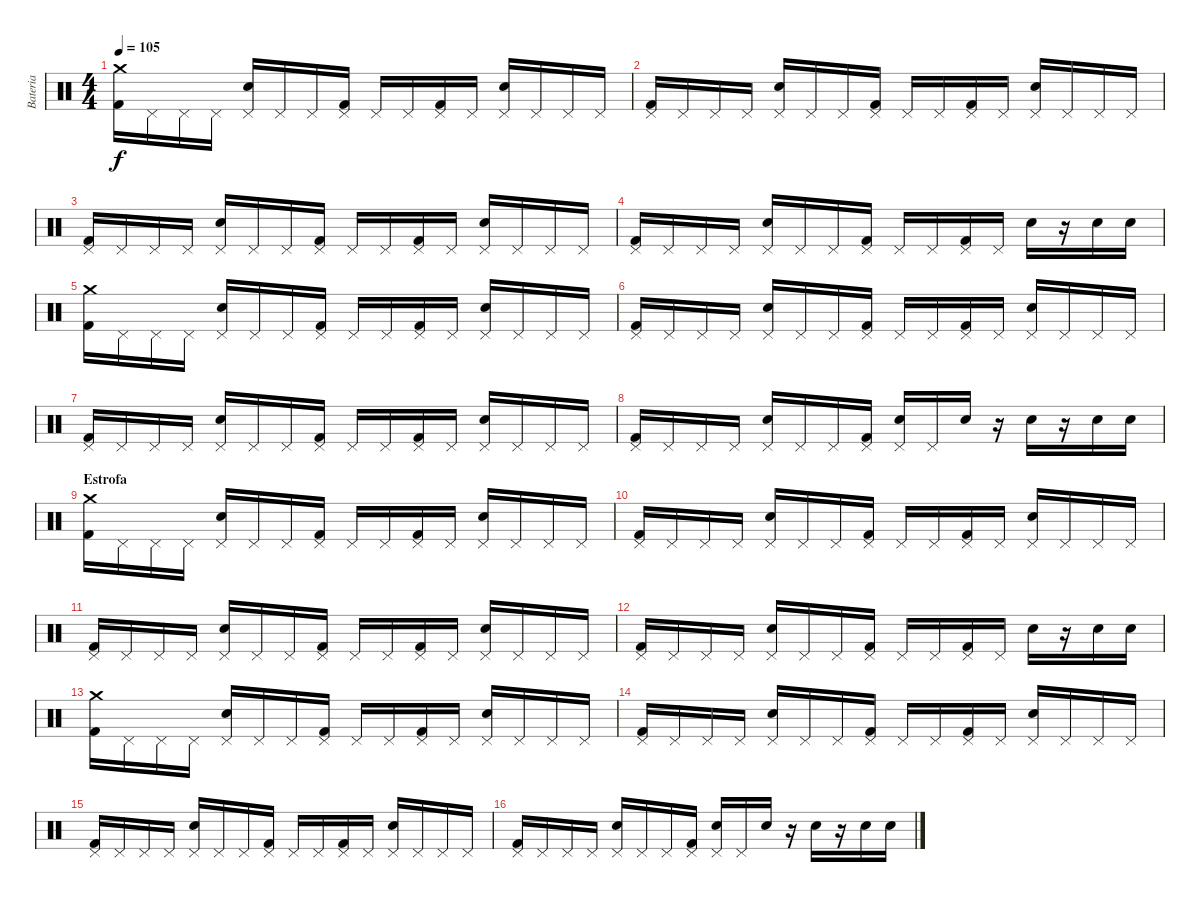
\track ("Bateria" "Bateria") {instrument percussion}
\staff {score}
\articulation defaults
\ts (4 4)
\tempo 105
\clef neutral
\ks c
("Crash medium (hit)" "Kick (hit) 2").16{dy f} "Pedal Hi-Hat (hit)".16 "Pedal Hi-Hat (hit)".16 "Pedal Hi-Hat (hit)".16 ("Pedal Hi-Hat (hit)" "Electric Snare (hit)").16 "Pedal Hi-Hat (hit)".16 "Pedal Hi-Hat (hit)".16 ("Pedal Hi-Hat (hit)" "Kick (hit) 2").16 "Pedal Hi-Hat (hit)".16 "Pedal Hi-Hat (hit)".16 ("Pedal Hi-Hat (hit)" "Kick (hit) 2").16 "Pedal Hi-Hat (hit)".16 ("Pedal Hi-Hat (hit)" "Electric Snare (hit)").16 "Pedal Hi-Hat (hit)".16 "Pedal Hi-Hat (hit)".16 "Pedal Hi-Hat (hit)".16 |
("Pedal Hi-Hat (hit)" "Kick (hit) 2").16 "Pedal Hi-Hat (hit)".16 "Pedal Hi-Hat (hit)".16 "Pedal Hi-Hat (hit)".16 ("Pedal Hi-Hat (hit)" "Electric Snare (hit)").16 "Pedal Hi-Hat (hit)".16 "Pedal Hi-Hat (hit)".16 ("Pedal Hi-Hat (hit)" "Kick (hit) 2").16 "Pedal Hi-Hat (hit)".16 "Pedal Hi-Hat (hit)".16 ("Pedal Hi-Hat (hit)" "Kick (hit) 2").16 "Pedal Hi-Hat (hit)".16 ("Pedal Hi-Hat (hit)" "Electric Snare (hit)").16 "Pedal Hi-Hat (hit)".16 "Pedal Hi-Hat (hit)".16 "Pedal Hi-Hat (hit)".16 |
("Pedal Hi-Hat (hit)" "Kick (hit) 2").16 "Pedal Hi-Hat (hit)".16 "Pedal Hi-Hat (hit)".16 "Pedal Hi-Hat (hit)".16 ("Pedal Hi-Hat (hit)" "Electric Snare (hit)").16 "Pedal Hi-Hat (hit)".16 "Pedal Hi-Hat (hit)".16 ("Pedal Hi-Hat (hit)" "Kick (hit) 2").16 "Pedal Hi-Hat (hit)".16 "Pedal Hi-Hat (hit)".16 ("Pedal Hi-Hat (hit)" "Kick (hit) 2").16 "Pedal Hi-Hat (hit)".16 ("Pedal Hi-Hat (hit)" "Electric Snare (hit)").16 "Pedal Hi-Hat (hit)".16 "Pedal Hi-Hat (hit)".16 "Pedal Hi-Hat (hit)".16 |
("Pedal Hi-Hat (hit)" "Kick (hit) 2").16 "Pedal Hi-Hat (hit)".16 "Pedal Hi-Hat (hit)".16 "Pedal Hi-Hat (hit)".16 ("Pedal Hi-Hat (hit)" "Electric Snare (hit)").16 "Pedal Hi-Hat (hit)".16 "Pedal Hi-Hat (hit)".16 ("Pedal Hi-Hat (hit)" "Kick (hit) 2").16 "Pedal Hi-Hat (hit)".16 "Pedal Hi-Hat (hit)".16 ("Pedal Hi-Hat (hit)" "Kick (hit) 2").16 "Pedal Hi-Hat (hit)".16 "Electric Snare (hit)".16 r.16 "Electric Snare (hit)".16 "Electric Snare (hit)".16 |
("Crash medium (hit)" "Kick (hit) 2").16 "Pedal Hi-Hat (hit)".16 "Pedal Hi-Hat (hit)".16 "Pedal Hi-Hat (hit)".16 ("Pedal Hi-Hat (hit)" "Electric Snare (hit)").16 "Pedal Hi-Hat (hit)".16 "Pedal Hi-Hat (hit)".16 ("Pedal Hi-Hat (hit)" "Kick (hit) 2").16 "Pedal Hi-Hat (hit)".16 "Pedal Hi-Hat (hit)".16 ("Pedal Hi-Hat (hit)" "Kick (hit) 2").16 "Pedal Hi-Hat (hit)".16 ("Pedal Hi-Hat (hit)" "Electric Snare (hit)").16 "Pedal Hi-Hat (hit)".16 "Pedal Hi-Hat (hit)".16 "Pedal Hi-Hat (hit)".16 |
("Pedal Hi-Hat (hit)" "Kick (hit) 2").16 "Pedal Hi-Hat (hit)".16 "Pedal Hi-Hat (hit)".16 "Pedal Hi-Hat (hit)".16 ("Pedal Hi-Hat (hit)" "Electric Snare (hit)").16 "Pedal Hi-Hat (hit)".16 "Pedal Hi-Hat (hit)".16 ("Pedal Hi-Hat (hit)" "Kick (hit) 2").16 "Pedal Hi-Hat (hit)".16 "Pedal Hi-Hat (hit)".16 ("Pedal Hi-Hat (hit)" "Kick (hit) 2").16 "Pedal Hi-Hat (hit)".16 ("Pedal Hi-Hat (hit)" "Electric Snare (hit)").16 "Pedal Hi-Hat (hit)".16 "Pedal Hi-Hat (hit)".16 "Pedal Hi-Hat (hit)".16 |
("Pedal Hi-Hat (hit)" "Kick (hit) 2").16 "Pedal Hi-Hat (hit)".16 "Pedal Hi-Hat (hit)".16 "Pedal Hi-Hat (hit)".16 ("Pedal Hi-Hat (hit)" "Electric Snare (hit)").16 "Pedal Hi-Hat (hit)".16 "Pedal Hi-Hat (hit)".16 ("Pedal Hi-Hat (hit)" "Kick (hit) 2").16 "Pedal Hi-Hat (hit)".16 "Pedal Hi-Hat (hit)".16 ("Pedal Hi-Hat (hit)" "Kick (hit) 2").16 "Pedal Hi-Hat (hit)".16 ("Pedal Hi-Hat (hit)" "Electric Snare (hit)").16 "Pedal Hi-Hat (hit)".16 "Pedal Hi-Hat (hit)".16 "Pedal Hi-Hat (hit)".16 |
("Pedal Hi-Hat (hit)" "Kick (hit) 2").16 "Pedal Hi-Hat (hit)".16 "Pedal Hi-Hat (hit)".16 "Pedal Hi-Hat (hit)".16 ("Pedal Hi-Hat (hit)" "Electric Snare (hit)").16 "Pedal Hi-Hat (hit)".16 "Pedal Hi-Hat (hit)".16 ("Pedal Hi-Hat (hit)" "Kick (hit) 2").16 ("Pedal Hi-Hat (hit)" "Electric Snare (hit)").16 "Pedal Hi-Hat (hit)".16 "Electric Snare (hit)".16 r.16 "Electric Snare (hit)".16 r.16 "Electric Snare (hit)".16 "Electric Snare (hit)".16 |
\section ("" "Estrofa")
("Crash medium (hit)" "Kick (hit) 2").16 "Pedal Hi-Hat (hit)".16 "Pedal Hi-Hat (hit)".16 "Pedal Hi-Hat (hit)".16 ("Pedal Hi-Hat (hit)" "Electric Snare (hit)").16 "Pedal Hi-Hat (hit)".16 "Pedal Hi-Hat (hit)".16 ("Pedal Hi-Hat (hit)" "Kick (hit) 2").16 "Pedal Hi-Hat (hit)".16 "Pedal Hi-Hat (hit)".16 ("Pedal Hi-Hat (hit)" "Kick (hit) 2").16 "Pedal Hi-Hat (hit)".16 ("Pedal Hi-Hat (hit)" "Electric Snare (hit)").16 "Pedal Hi-Hat (hit)".16 "Pedal Hi-Hat (hit)".16 "Pedal Hi-Hat (hit)".16 |
("Pedal Hi-Hat (hit)" "Kick (hit) 2").16 "Pedal Hi-Hat (hit)".16 "Pedal Hi-Hat (hit)".16 "Pedal Hi-Hat (hit)".16 ("Pedal Hi-Hat (hit)" "Electric Snare (hit)").16 "Pedal Hi-Hat (hit)".16 "Pedal Hi-Hat (hit)".16 ("Pedal Hi-Hat (hit)" "Kick (hit) 2").16 "Pedal Hi-Hat (hit)".16 "Pedal Hi-Hat (hit)".16 ("Pedal Hi-Hat (hit)" "Kick (hit) 2").16 "Pedal Hi-Hat (hit)".16 ("Pedal Hi-Hat (hit)" "Electric Snare (hit)").16 "Pedal Hi-Hat (hit)".16 "Pedal Hi-Hat (hit)".16 "Pedal Hi-Hat (hit)".16 |
("Pedal Hi-Hat (hit)" "Kick (hit) 2").16 "Pedal Hi-Hat (hit)".16 "Pedal Hi-Hat (hit)".16 "Pedal Hi-Hat (hit)".16 ("Pedal Hi-Hat (hit)" "Electric Snare (hit)").16 "Pedal Hi-Hat (hit)".16 "Pedal Hi-Hat (hit)".16 ("Pedal Hi-Hat (hit)" "Kick (hit) 2").16 "Pedal Hi-Hat (hit)".16 "Pedal Hi-Hat (hit)".16 ("Pedal Hi-Hat (hit)" "Kick (hit) 2").16 "Pedal Hi-Hat (hit)".16 ("Pedal Hi-Hat (hit)" "Electric Snare (hit)").16 "Pedal Hi-Hat (hit)".16 "Pedal Hi-Hat (hit)".16 "Pedal Hi-Hat (hit)".16 |
("Pedal Hi-Hat (hit)" "Kick (hit) 2").16 "Pedal Hi-Hat (hit)".16 "Pedal Hi-Hat (hit)".16 "Pedal Hi-Hat (hit)".16 ("Pedal Hi-Hat (hit)" "Electric Snare (hit)").16 "Pedal Hi-Hat (hit)".16 "Pedal Hi-Hat (hit)".16 ("Pedal Hi-Hat (hit)" "Kick (hit) 2").16 "Pedal Hi-Hat (hit)".16 "Pedal Hi-Hat (hit)".16 ("Pedal Hi-Hat (hit)" "Kick (hit) 2").16 "Pedal Hi-Hat (hit)".16 "Electric Snare (hit)".16 r.16 "Electric Snare (hit)".16 "Electric Snare (hit)".16 |
("Crash medium (hit)" "Kick (hit) 2").16 "Pedal Hi-Hat (hit)".16 "Pedal Hi-Hat (hit)".16 "Pedal Hi-Hat (hit)".16 ("Pedal Hi-Hat (hit)" "Electric Snare (hit)").16 "Pedal Hi-Hat (hit)".16 "Pedal Hi-Hat (hit)".16 ("Pedal Hi-Hat (hit)" "Kick (hit) 2").16 "Pedal Hi-Hat (hit)".16 "Pedal Hi-Hat (hit)".16 ("Pedal Hi-Hat (hit)" "Kick (hit) 2").16 "Pedal Hi-Hat (hit)".16 ("Pedal Hi-Hat (hit)" "Electric Snare (hit)").16 "Pedal Hi-Hat (hit)".16 "Pedal Hi-Hat (hit)".16 "Pedal Hi-Hat (hit)".16 |
("Pedal Hi-Hat (hit)" "Kick (hit) 2").16 "Pedal Hi-Hat (hit)".16 "Pedal Hi-Hat (hit)".16 "Pedal Hi-Hat (hit)".16 ("Pedal Hi-Hat (hit)" "Electric Snare (hit)").16 "Pedal Hi-Hat (hit)".16 "Pedal Hi-Hat (hit)".16 ("Pedal Hi-Hat (hit)" "Kick (hit) 2").16 "Pedal Hi-Hat (hit)".16 "Pedal Hi-Hat (hit)".16 ("Pedal Hi-Hat (hit)" "Kick (hit) 2").16 "Pedal Hi-Hat (hit)".16 ("Pedal Hi-Hat (hit)" "Electric Snare (hit)").16 "Pedal Hi-Hat (hit)".16 "Pedal Hi-Hat (hit)".16 "Pedal Hi-Hat (hit)".16 |
("Pedal Hi-Hat (hit)" "Kick (hit) 2").16 "Pedal Hi-Hat (hit)".16 "Pedal Hi-Hat (hit)".16 "Pedal Hi-Hat (hit)".16 ("Pedal Hi-Hat (hit)" "Electric Snare (hit)").16 "Pedal Hi-Hat (hit)".16 "Pedal Hi-Hat (hit)".16 ("Pedal Hi-Hat (hit)" "Kick (hit) 2").16 "Pedal Hi-Hat (hit)".16 "Pedal Hi-Hat (hit)".16 ("Pedal Hi-Hat (hit)" "Kick (hit) 2").16 "Pedal Hi-Hat (hit)".16 ("Pedal Hi-Hat (hit)" "Electric Snare (hit)").16 "Pedal Hi-Hat (hit)".16 "Pedal Hi-Hat (hit)".16 "Pedal Hi-Hat (hit)".16 |
("Pedal Hi-Hat (hit)" "Kick (hit) 2").16 "Pedal Hi-Hat (hit)".16 "Pedal Hi-Hat (hit)".16 "Pedal Hi-Hat (hit)".16 ("Pedal Hi-Hat (hit)" "Electric Snare (hit)").16 "Pedal Hi-Hat (hit)".16 "Pedal Hi-Hat (hit)".16 ("Pedal Hi-Hat (hit)" "Kick (hit) 2").16 ("Pedal Hi-Hat (hit)" "Electric Snare (hit)").16 "Pedal Hi-Hat (hit)".16 "Electric Snare (hit)".16 r.16 "Electric Snare (hit)".16 r.16 "Electric Snare (hit)".16 "Electric Snare (hit)".16
